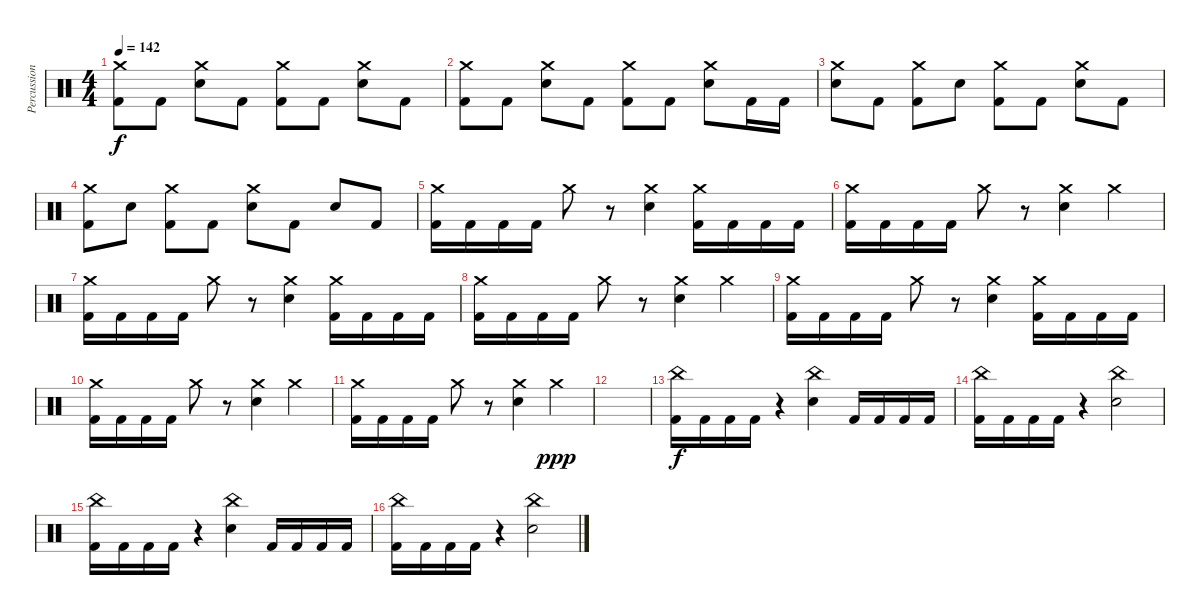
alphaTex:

\track ("Percussion" "Percussion") {instrument percussion}
\staff {score}
\articulation defaults
\ts (4 4)
\tempo 142
\clef neutral
\ks c
("Crash medium (hit)" "Kick (hit) 2").8{dy f} "Kick (hit) 2".8 ("Crash medium (hit)" "Electric Snare (hit)").8 "Kick (hit) 2".8 ("Crash medium (hit)" "Kick (hit) 2").8 "Kick (hit) 2".8 ("Crash medium (hit)" "Electric Snare (hit)").8 "Kick (hit) 2".8 |
("Crash medium (hit)" "Kick (hit) 2").8 "Kick (hit) 2".8 ("Crash medium (hit)" "Electric Snare (hit)").8 "Kick (hit) 2".8 ("Crash medium (hit)" "Kick (hit) 2").8 "Kick (hit) 2".8 ("Crash medium (hit)" "Electric Snare (hit)").8 "Kick (hit) 2".16 "Kick (hit) 2".16 |
("Crash medium (hit)" "Electric Snare (hit)").8 "Kick (hit) 2".8 ("Crash medium (hit)" "Kick (hit) 2").8 "Electric Snare (hit)".8 ("Crash medium (hit)" "Kick (hit) 2").8 "Kick (hit) 2".8 ("Crash medium (hit)" "Electric Snare (hit)").8 "Kick (hit) 2".8 |
("Crash medium (hit)" "Kick (hit) 2").8 "Electric Snare (hit)".8 ("Crash medium (hit)" "Kick (hit) 2").8 "Kick (hit) 2".8 ("Crash medium (hit)" "Electric Snare (hit)").8 "Kick (hit) 2".8 "Electric Snare (hit)".8 "Kick (hit) 2".8 |
("Crash medium (hit)" "Kick (hit) 2").16 "Kick (hit) 2".16 "Kick (hit) 2".16 "Kick (hit) 2".16 "Crash medium (hit)".8 r.8 ("Crash medium (hit)" "Electric Snare (hit)").4 ("Crash medium (hit)" "Kick (hit) 2").16 "Kick (hit) 2".16 "Kick (hit) 2".16 "Kick (hit) 2".16 |
("Crash medium (hit)" "Kick (hit) 2").16 "Kick (hit) 2".16 "Kick (hit) 2".16 "Kick (hit) 2".16 "Crash medium (hit)".8 r.8 ("Crash medium (hit)" "Electric Snare (hit)").4 "Crash medium (hit)".4 |
("Crash medium (hit)" "Kick (hit) 2").16 "Kick (hit) 2".16 "Kick (hit) 2".16 "Kick (hit) 2".16 "Crash medium (hit)".8 r.8 ("Crash medium (hit)" "Electric Snare (hit)").4 ("Crash medium (hit)" "Kick (hit) 2").16 "Kick (hit) 2".16 "Kick (hit) 2".16 "Kick (hit) 2".16 |
("Crash medium (hit)" "Kick (hit) 2").16 "Kick (hit) 2".16 "Kick (hit) 2".16 "Kick (hit) 2".16 "Crash medium (hit)".8 r.8 ("Crash medium (hit)" "Electric Snare (hit)").4 "Crash medium (hit)".4 |
("Crash medium (hit)" "Kick (hit) 2").16 "Kick (hit) 2".16 "Kick (hit) 2".16 "Kick (hit) 2".16 "Crash medium (hit)".8 r.8 ("Crash medium (hit)" "Electric Snare (hit)").4 ("Crash medium (hit)" "Kick (hit) 2").16 "Kick (hit) 2".16 "Kick (hit) 2".16 "Kick (hit) 2".16 |
("Crash medium (hit)" "Kick (hit) 2").16 "Kick (hit) 2".16 "Kick (hit) 2".16 "Kick (hit) 2".16 "Crash medium (hit)".8 r.8 ("Crash medium (hit)" "Electric Snare (hit)").4 "Crash medium (hit)".4 |
("Crash medium (hit)" "Kick (hit) 2").16 "Kick (hit) 2".16 "Kick (hit) 2".16 "Kick (hit) 2".16 "Crash medium (hit)".8 r.8 ("Crash medium (hit)" "Electric Snare (hit)").4 "Crash medium (hit)".4{dy ppp} |
|
("China (hit)" "Kick (hit) 2").16{dy f} "Kick (hit) 2".16 "Kick (hit) 2".16 "Kick (hit) 2".16 r.4 ("China (hit)" "Electric Snare (hit)").4 "Kick (hit) 2".16 "Kick (hit) 2".16 "Kick (hit) 2".16 "Kick (hit) 2".16 |
("China (hit)" "Kick (hit) 2").16 "Kick (hit) 2".16 "Kick (hit) 2".16 "Kick (hit) 2".16 r.4 ("China (hit)" "Electric Snare (hit)").2 |
("China (hit)" "Kick (hit) 2").16 "Kick (hit) 2".16 "Kick (hit) 2".16 "Kick (hit) 2".16 r.4 ("China (hit)" "Electric Snare (hit)").4 "Kick (hit) 2".16 "Kick (hit) 2".16 "Kick (hit) 2".16 "Kick (hit) 2".16 |
("China (hit)" "Kick (hit) 2").16 "Kick (hit) 2".16 "Kick (hit) 2".16 "Kick (hit) 2".16 r.4 ("China (hit)" "Electric Snare (hit)").2
